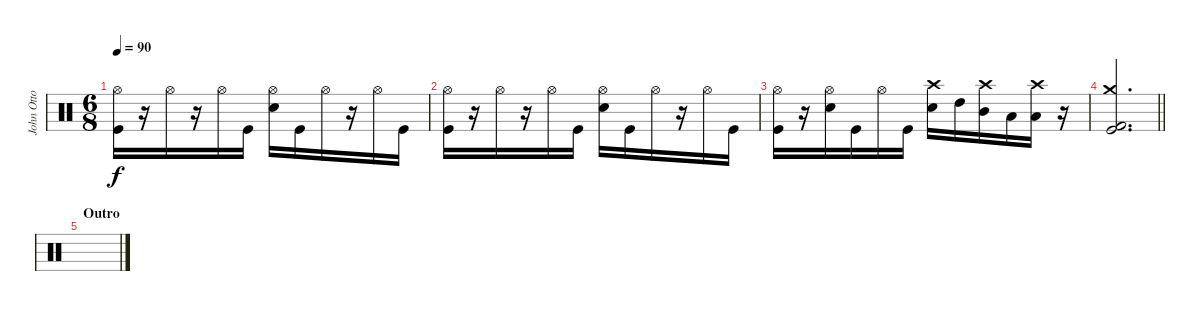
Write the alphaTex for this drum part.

\track ("John Otto" "John Otto") {instrument percussion}
\staff {score}
\articulation defaults
\ts (6 8)
\tempo 90
\clef neutral
\ks c
("Hi-Hat (open)" "Kick (hit)").16{dy f} r.16 "Hi-Hat (open)".16 r.16 "Hi-Hat (open)".16 "Kick (hit)".16 ("Hi-Hat (open)" "Electric Snare (hit)").16 "Kick (hit)".16 "Hi-Hat (open)".16 r.16 "Hi-Hat (open)".16 "Kick (hit)".16 |
("Hi-Hat (open)" "Kick (hit)").16 r.16 "Hi-Hat (open)".16 r.16 "Hi-Hat (open)".16 "Kick (hit)".16 ("Hi-Hat (open)" "Electric Snare (hit)").16 "Kick (hit)".16 "Hi-Hat (open)".16 r.16 "Hi-Hat (open)".16 "Kick (hit)".16 |
("Hi-Hat (open)" "Kick (hit)").16 r.16 ("Hi-Hat (open)" "Electric Snare (hit)").16 "Kick (hit)".16 "Hi-Hat (open)".16 "Kick (hit)".16 ("Crash high (hit)" "Electric Snare (hit)").16 "High Tom (hit)".16 ("Crash high (hit)" "Mid Tom (hit)").16 "Low Tom (hit)".16 ("Crash high (hit)" "Low Floor Tom (hit)").16 r.16 |
\barLineRight lightlight
("Crash medium (hit)" "Kick (hit)" "Kick (hit) 2").2{d} |
\section ("" "Outro")
